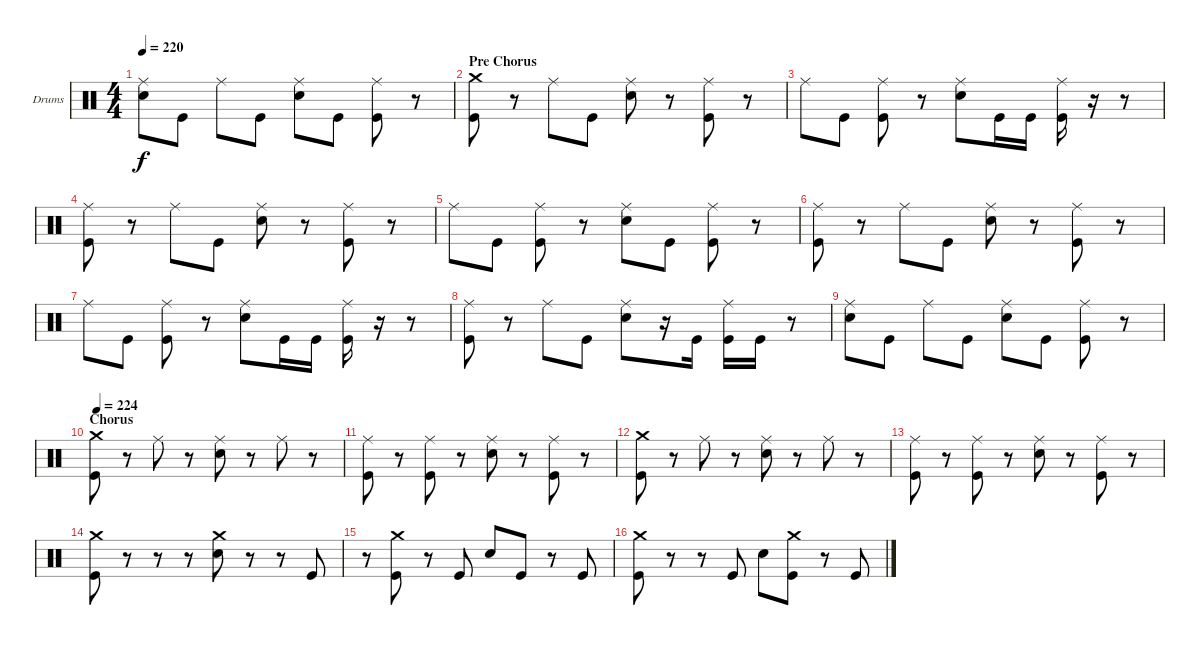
\bracketExtendMode groupsimilarinstruments
\firstSystemTrackNameOrientation horizontal
\otherSystemsTrackNameOrientation horizontal
\track ("Drumkit" "Drums") {instrument percussion}
\staff {score}
\articulation defaults
\ts (4 4)
\tempo 220
\clef neutral
\ks c
("Ride (middle)" "Snare (hit) 2").8{dy f} "Kick (hit)".8 "Ride (middle)".8 "Kick (hit)".8 ("Ride (middle)" "Snare (hit) 2").8 "Kick (hit)".8 ("Ride (middle)" "Kick (hit)").8 r.8 |
\section ("" "Pre Chorus")
("Crash medium (hit)" "Kick (hit)").8 r.8 "Ride (middle)".8 "Kick (hit)".8 ("Ride (middle)" "Snare (hit) 2").8 r.8 ("Ride (middle)" "Kick (hit)").8 r.8 |
"Ride (middle)".8 "Kick (hit)".8 ("Ride (middle)" "Kick (hit)").8 r.8 ("Ride (middle)" "Snare (hit) 2").8 "Kick (hit)".16 "Kick (hit)".16 ("Ride (middle)" "Kick (hit)").16 r.16 r.8 |
("Ride (middle)" "Kick (hit)").8 r.8 "Ride (middle)".8 "Kick (hit)".8 ("Ride (middle)" "Snare (hit) 2").8 r.8 ("Ride (middle)" "Kick (hit)").8 r.8 |
"Ride (middle)".8 "Kick (hit)".8 ("Ride (middle)" "Kick (hit)").8 r.8 ("Ride (middle)" "Snare (hit) 2").8 "Kick (hit)".8 ("Ride (middle)" "Kick (hit)").8 r.8 |
("Ride (middle)" "Kick (hit)").8 r.8 "Ride (middle)".8 "Kick (hit)".8 ("Ride (middle)" "Snare (hit) 2").8 r.8 ("Ride (middle)" "Kick (hit)").8 r.8 |
"Ride (middle)".8 "Kick (hit)".8 ("Ride (middle)" "Kick (hit)").8 r.8 ("Ride (middle)" "Snare (hit) 2").8 "Kick (hit)".16 "Kick (hit)".16 ("Ride (middle)" "Kick (hit)").16 r.16 r.8 |
("Ride (middle)" "Kick (hit)").8 r.8 "Ride (middle)".8 "Kick (hit)".8 ("Ride (middle)" "Snare (hit) 2").8 r.16 "Kick (hit)".16 ("Ride (middle)" "Kick (hit)").16 "Kick (hit)".16 r.8 |
("Ride (middle)" "Snare (hit) 2").8 "Kick (hit)".8 "Ride (middle)".8 "Kick (hit)".8 ("Ride (middle)" "Snare (hit) 2").8 "Kick (hit)".8 ("Ride (middle)" "Kick (hit)").8 r.8 |
\section ("" "Chorus")
\tempo (224 0.00625)
("Crash medium (hit)" "Kick (hit)").8 r.8 "Ride (middle)".8 r.8 ("Ride (middle)" "Snare (hit) 2").8 r.8 "Ride (middle)".8 r.8 |
("Ride (middle)" "Kick (hit)").8 r.8 ("Ride (middle)" "Kick (hit)").8 r.8 ("Ride (middle)" "Snare (hit) 2").8 r.8 ("Ride (middle)" "Kick (hit)").8 r.8 |
("Crash medium (hit)" "Kick (hit)").8 r.8 "Ride (middle)".8 r.8 ("Ride (middle)" "Snare (hit) 2").8 r.8 "Ride (middle)".8 r.8 |
("Ride (middle)" "Kick (hit)").8 r.8 ("Ride (middle)" "Kick (hit)").8 r.8 ("Ride (middle)" "Snare (hit) 2").8 r.8 ("Ride (middle)" "Kick (hit)").8 r.8 |
("Crash medium (hit)" "Kick (hit)").8 r.8 r.8 r.8 ("Crash medium (hit)" "Snare (hit) 2").8 r.8 r.8 "Kick (hit)".8 |
r.8 ("Crash medium (hit)" "Kick (hit)").8 r.8 "Kick (hit)".8 "Snare (hit) 2".8 "Kick (hit)".8 r.8 "Kick (hit)".8 |
("Crash medium (hit)" "Kick (hit)").8 r.8 r.8 "Kick (hit)".8 "Snare (hit) 2".8 ("Crash medium (hit)" "Kick (hit)").8 r.8 "Kick (hit)".8
